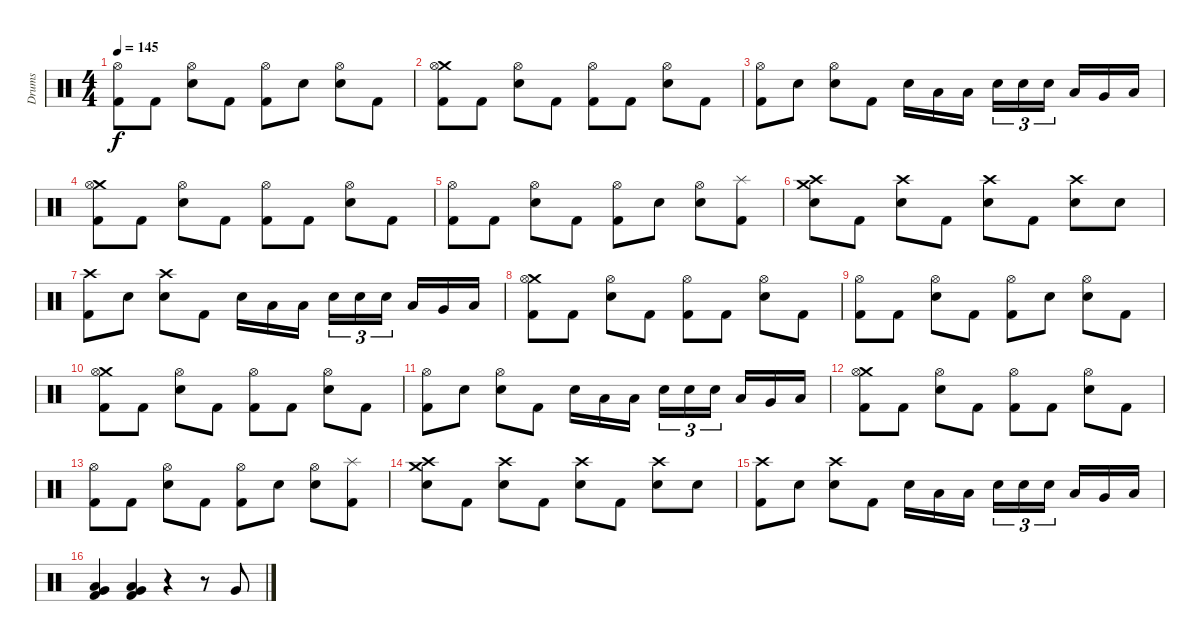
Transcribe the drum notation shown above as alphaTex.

\track ("Drums" "Drums") {instrument percussion}
\staff {score}
\articulation defaults
\ts (4 4)
\tempo 145
\clef neutral
\ks c
("Hi-Hat (open)" "Kick (hit) 2").8{dy f} "Kick (hit) 2".8 ("Hi-Hat (open)" "Electric Snare (hit)").8 "Kick (hit) 2".8 ("Hi-Hat (open)" "Kick (hit) 2").8 "Electric Snare (hit)".8 ("Hi-Hat (open)" "Electric Snare (hit)").8 "Kick (hit) 2".8 |
("Crash medium (hit)" "Hi-Hat (open)" "Kick (hit) 2").8 "Kick (hit) 2".8 ("Hi-Hat (open)" "Electric Snare (hit)").8 "Kick (hit) 2".8 ("Hi-Hat (open)" "Kick (hit) 2").8 "Kick (hit) 2".8 ("Hi-Hat (open)" "Electric Snare (hit)").8 "Kick (hit) 2".8 |
("Hi-Hat (open)" "Kick (hit) 2").8 "Electric Snare (hit)".8 ("Hi-Hat (open)" "Electric Snare (hit)").8 "Kick (hit) 2".8 "Electric Snare (hit)".16 "Low Tom (hit)".16 "Low Tom (hit)".16{beam splitsecondary} "Electric Snare (hit)".16{tu (3 2)} "Electric Snare (hit)".16{tu (3 2)} "Electric Snare (hit)".16{tu (3 2) beam splitsecondary} "Low Tom (hit)".16 "Very Low Tom (hit)".16 "Low Floor Tom (hit)".16 |
("Crash medium (hit)" "Hi-Hat (open)" "Kick (hit) 2").8 "Kick (hit) 2".8 ("Hi-Hat (open)" "Electric Snare (hit)").8 "Kick (hit) 2".8 ("Hi-Hat (open)" "Kick (hit) 2").8 "Kick (hit) 2".8 ("Hi-Hat (open)" "Electric Snare (hit)").8 "Kick (hit) 2".8 |
("Hi-Hat (open)" "Kick (hit) 2").8 "Kick (hit) 2".8 ("Hi-Hat (open)" "Electric Snare (hit)").8 "Kick (hit) 2".8 ("Hi-Hat (open)" "Kick (hit) 2").8 "Electric Snare (hit)".8 ("Hi-Hat (open)" "Electric Snare (hit)").8 ("Splash (hit)" "Kick (hit) 2").8 |
("Crash medium (hit)" "Crash high (hit)" "Electric Snare (hit)").8 "Kick (hit) 2".8 ("Crash high (hit)" "Electric Snare (hit)").8 "Kick (hit) 2".8 ("Crash high (hit)" "Electric Snare (hit)").8 "Kick (hit) 2".8 ("Crash high (hit)" "Electric Snare (hit)").8 "Electric Snare (hit)".8 |
("Crash high (hit)" "Kick (hit) 2").8 "Electric Snare (hit)".8 ("Crash high (hit)" "Electric Snare (hit)").8 "Kick (hit) 2".8 "Electric Snare (hit)".16 "Low Tom (hit)".16 "Low Tom (hit)".16{beam splitsecondary} "Electric Snare (hit)".16{tu (3 2)} "Electric Snare (hit)".16{tu (3 2)} "Electric Snare (hit)".16{tu (3 2) beam splitsecondary} "Low Tom (hit)".16 "Very Low Tom (hit)".16 "Low Floor Tom (hit)".16 |
("Crash medium (hit)" "Hi-Hat (open)" "Kick (hit) 2").8 "Kick (hit) 2".8 ("Hi-Hat (open)" "Electric Snare (hit)").8 "Kick (hit) 2".8 ("Hi-Hat (open)" "Kick (hit) 2").8 "Kick (hit) 2".8 ("Hi-Hat (open)" "Electric Snare (hit)").8 "Kick (hit) 2".8 |
("Hi-Hat (open)" "Kick (hit) 2").8 "Kick (hit) 2".8 ("Hi-Hat (open)" "Electric Snare (hit)").8 "Kick (hit) 2".8 ("Hi-Hat (open)" "Kick (hit) 2").8 "Electric Snare (hit)".8 ("Hi-Hat (open)" "Electric Snare (hit)").8 "Kick (hit) 2".8 |
("Crash medium (hit)" "Hi-Hat (open)" "Kick (hit) 2").8 "Kick (hit) 2".8 ("Hi-Hat (open)" "Electric Snare (hit)").8 "Kick (hit) 2".8 ("Hi-Hat (open)" "Kick (hit) 2").8 "Kick (hit) 2".8 ("Hi-Hat (open)" "Electric Snare (hit)").8 "Kick (hit) 2".8 |
("Hi-Hat (open)" "Kick (hit) 2").8 "Electric Snare (hit)".8 ("Hi-Hat (open)" "Electric Snare (hit)").8 "Kick (hit) 2".8 "Electric Snare (hit)".16 "Low Tom (hit)".16 "Low Tom (hit)".16{beam splitsecondary} "Electric Snare (hit)".16{tu (3 2)} "Electric Snare (hit)".16{tu (3 2)} "Electric Snare (hit)".16{tu (3 2) beam splitsecondary} "Low Tom (hit)".16 "Very Low Tom (hit)".16 "Low Floor Tom (hit)".16 |
("Crash medium (hit)" "Hi-Hat (open)" "Kick (hit) 2").8 "Kick (hit) 2".8 ("Hi-Hat (open)" "Electric Snare (hit)").8 "Kick (hit) 2".8 ("Hi-Hat (open)" "Kick (hit) 2").8 "Kick (hit) 2".8 ("Hi-Hat (open)" "Electric Snare (hit)").8 "Kick (hit) 2".8 |
("Hi-Hat (open)" "Kick (hit) 2").8 "Kick (hit) 2".8 ("Hi-Hat (open)" "Electric Snare (hit)").8 "Kick (hit) 2".8 ("Hi-Hat (open)" "Kick (hit) 2").8 "Electric Snare (hit)".8 ("Hi-Hat (open)" "Electric Snare (hit)").8 ("Splash (hit)" "Kick (hit) 2").8 |
("Crash medium (hit)" "Crash high (hit)" "Electric Snare (hit)").8 "Kick (hit) 2".8 ("Crash high (hit)" "Electric Snare (hit)").8 "Kick (hit) 2".8 ("Crash high (hit)" "Electric Snare (hit)").8 "Kick (hit) 2".8 ("Crash high (hit)" "Electric Snare (hit)").8 "Electric Snare (hit)".8 |
("Crash high (hit)" "Kick (hit) 2").8 "Electric Snare (hit)".8 ("Crash high (hit)" "Electric Snare (hit)").8 "Kick (hit) 2".8 "Electric Snare (hit)".16 "Low Tom (hit)".16 "Low Tom (hit)".16{beam splitsecondary} "Electric Snare (hit)".16{tu (3 2)} "Electric Snare (hit)".16{tu (3 2)} "Electric Snare (hit)".16{tu (3 2) beam splitsecondary} "Low Tom (hit)".16 "Very Low Tom (hit)".16 "Low Floor Tom (hit)".16 |
("Low Floor Tom (hit)" "Very Low Tom (hit)" "Kick (hit) 2").4 ("Low Floor Tom (hit)" "Very Low Tom (hit)" "Kick (hit) 2").4 r.4 r.8 "Very Low Tom (hit)".8
